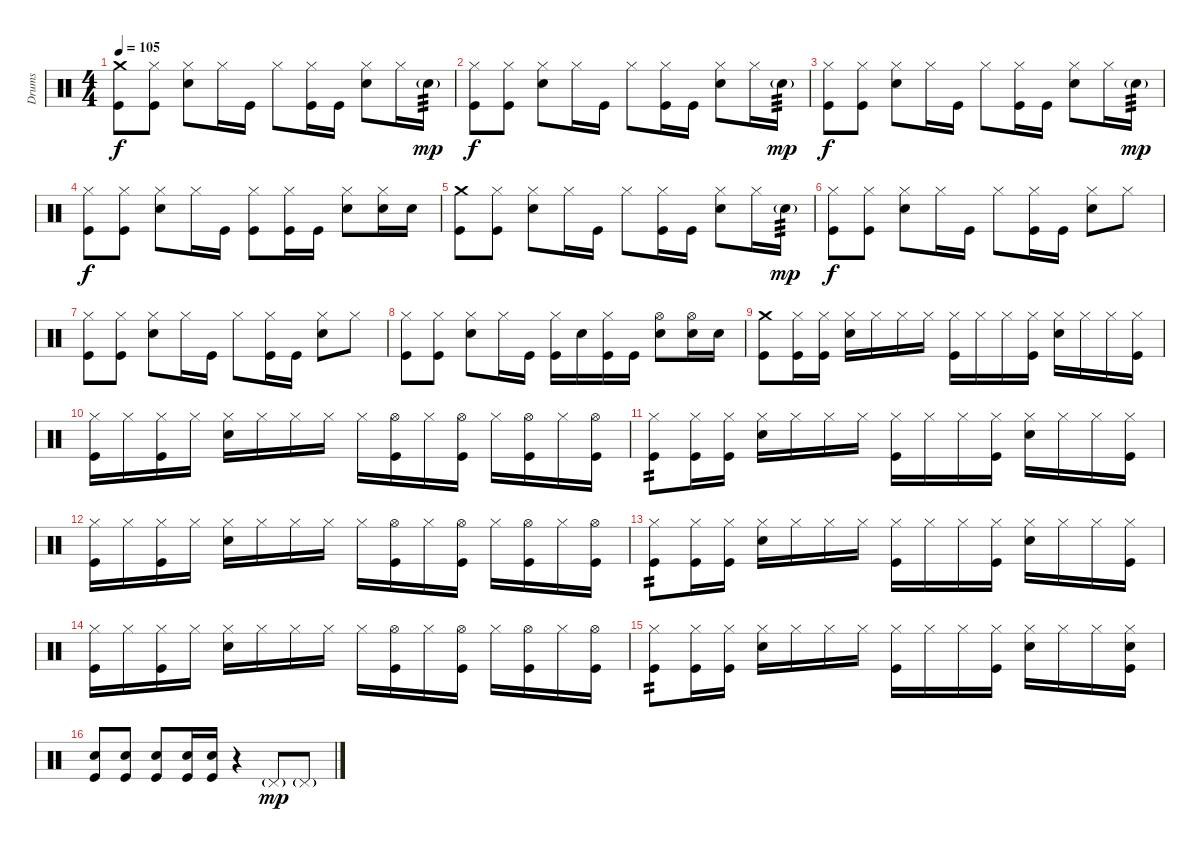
\track ("Drums" "Drums") {instrument percussion}
\staff {score}
\articulation defaults
\ts (4 4)
\tempo 105
\clef neutral
\ks c
("Crash medium (hit)" "Kick (hit)").8{dy f} ("Hi-Hat (closed)" "Kick (hit)").8 ("Hi-Hat (closed)" "Electric Snare (hit)").8 "Hi-Hat (closed)".16 "Kick (hit)".16 "Hi-Hat (closed)".8 ("Hi-Hat (closed)" "Kick (hit)").16 "Kick (hit)".16 ("Hi-Hat (closed)" "Electric Snare (hit)").8 "Hi-Hat (closed)".16 "Electric Snare (hit)"{g}.16{tp 3 dy mp} |
("Hi-Hat (closed)" "Kick (hit)").8{dy f} ("Hi-Hat (closed)" "Kick (hit)").8 ("Hi-Hat (closed)" "Electric Snare (hit)").8 "Hi-Hat (closed)".16 "Kick (hit)".16 "Hi-Hat (closed)".8 ("Hi-Hat (closed)" "Kick (hit)").16 "Kick (hit)".16 ("Hi-Hat (closed)" "Electric Snare (hit)").8 "Hi-Hat (closed)".16 "Electric Snare (hit)"{g}.16{tp 3 dy mp} |
("Hi-Hat (closed)" "Kick (hit)").8{dy f} ("Hi-Hat (closed)" "Kick (hit)").8 ("Hi-Hat (closed)" "Electric Snare (hit)").8 "Hi-Hat (closed)".16 "Kick (hit)".16 "Hi-Hat (closed)".8 ("Hi-Hat (closed)" "Kick (hit)").16 "Kick (hit)".16 ("Hi-Hat (closed)" "Electric Snare (hit)").8 "Hi-Hat (closed)".16 "Electric Snare (hit)"{g}.16{tp 3 dy mp} |
("Hi-Hat (closed)" "Kick (hit)").8{dy f} ("Hi-Hat (closed)" "Kick (hit)").8 ("Hi-Hat (closed)" "Electric Snare (hit)").8 "Hi-Hat (closed)".16 "Kick (hit)".16 ("Hi-Hat (closed)" "Kick (hit)").8 ("Hi-Hat (closed)" "Kick (hit)").16 "Kick (hit)".16 ("Hi-Hat (closed)" "Electric Snare (hit)").8 ("Hi-Hat (closed)" "Electric Snare (hit)").16 "Electric Snare (hit)".16 |
("Crash medium (hit)" "Kick (hit)").8 ("Hi-Hat (closed)" "Kick (hit)").8 ("Hi-Hat (closed)" "Electric Snare (hit)").8 "Hi-Hat (closed)".16 "Kick (hit)".16 "Hi-Hat (closed)".8 ("Hi-Hat (closed)" "Kick (hit)").16 "Kick (hit)".16 ("Hi-Hat (closed)" "Electric Snare (hit)").8 "Hi-Hat (closed)".16 "Electric Snare (hit)"{g}.16{tp 3 dy mp} |
("Hi-Hat (closed)" "Kick (hit)").8{dy f} ("Hi-Hat (closed)" "Kick (hit)").8 ("Hi-Hat (closed)" "Electric Snare (hit)").8 "Hi-Hat (closed)".16 "Kick (hit)".16 "Hi-Hat (closed)".8 ("Hi-Hat (closed)" "Kick (hit)").16 "Kick (hit)".16 ("Hi-Hat (closed)" "Electric Snare (hit)").8 "Hi-Hat (closed)".8 |
("Hi-Hat (closed)" "Kick (hit)").8 ("Hi-Hat (closed)" "Kick (hit)").8 ("Hi-Hat (closed)" "Electric Snare (hit)").8 "Hi-Hat (closed)".16 "Kick (hit)".16 "Hi-Hat (closed)".8 ("Hi-Hat (closed)" "Kick (hit)").16 "Kick (hit)".16 ("Hi-Hat (closed)" "Electric Snare (hit)").8 "Hi-Hat (closed)".8 |
("Hi-Hat (closed)" "Kick (hit)").8 ("Hi-Hat (closed)" "Kick (hit)").8 ("Hi-Hat (closed)" "Electric Snare (hit)").8 "Hi-Hat (closed)".16 "Kick (hit)".16 ("Hi-Hat (closed)" "Kick (hit)").16 "Electric Snare (hit)".16 ("Hi-Hat (closed)" "Kick (hit)").16 "Kick (hit)".16 ("Hi-Hat (open)" "Electric Snare (hit)").8 ("Hi-Hat (open)" "Electric Snare (hit)").16 "Electric Snare (hit)".16 |
("Crash medium (hit)" "Kick (hit)").8 ("Hi-Hat (closed)" "Kick (hit)").16 ("Hi-Hat (closed)" "Kick (hit)").16 ("Hi-Hat (closed)" "Electric Snare (hit)").16 "Hi-Hat (closed)".16 "Hi-Hat (closed)".16 "Hi-Hat (closed)".16 ("Hi-Hat (closed)" "Kick (hit)").16 "Hi-Hat (closed)".16 "Hi-Hat (closed)".16 ("Hi-Hat (closed)" "Kick (hit)").16 ("Hi-Hat (closed)" "Electric Snare (hit)").16 "Hi-Hat (closed)".16 "Hi-Hat (closed)".16 ("Hi-Hat (closed)" "Kick (hit)").16 |
("Hi-Hat (closed)" "Kick (hit)").16 "Hi-Hat (closed)".16 ("Hi-Hat (closed)" "Kick (hit)").16 "Hi-Hat (closed)".16 ("Hi-Hat (closed)" "Electric Snare (hit)").16 "Hi-Hat (closed)".16 "Hi-Hat (closed)".16 "Hi-Hat (closed)".16 "Hi-Hat (closed)".16 ("Hi-Hat (open)" "Kick (hit)").16 "Hi-Hat (closed)".16 ("Hi-Hat (open)" "Kick (hit)").16 "Hi-Hat (closed)".16 ("Hi-Hat (open)" "Kick (hit)").16 "Hi-Hat (closed)".16 ("Hi-Hat (open)" "Kick (hit)").16 |
("Hi-Hat (closed)" "Kick (hit)").8{tp 2} ("Hi-Hat (closed)" "Kick (hit)").16 ("Hi-Hat (closed)" "Kick (hit)").16 ("Hi-Hat (closed)" "Electric Snare (hit)").16 "Hi-Hat (closed)".16 "Hi-Hat (closed)".16 "Hi-Hat (closed)".16 ("Hi-Hat (closed)" "Kick (hit)").16 "Hi-Hat (closed)".16 "Hi-Hat (closed)".16 ("Hi-Hat (closed)" "Kick (hit)").16 ("Hi-Hat (closed)" "Electric Snare (hit)").16 "Hi-Hat (closed)".16 "Hi-Hat (closed)".16 ("Hi-Hat (closed)" "Kick (hit)").16 |
("Hi-Hat (closed)" "Kick (hit)").16 "Hi-Hat (closed)".16 ("Hi-Hat (closed)" "Kick (hit)").16 "Hi-Hat (closed)".16 ("Hi-Hat (closed)" "Electric Snare (hit)").16 "Hi-Hat (closed)".16 "Hi-Hat (closed)".16 "Hi-Hat (closed)".16 "Hi-Hat (closed)".16 ("Hi-Hat (open)" "Kick (hit)").16 "Hi-Hat (closed)".16 ("Hi-Hat (open)" "Kick (hit)").16 "Hi-Hat (closed)".16 ("Hi-Hat (open)" "Kick (hit)").16 "Hi-Hat (closed)".16 ("Hi-Hat (open)" "Kick (hit)").16 |
("Hi-Hat (closed)" "Kick (hit)").8{tp 2} ("Hi-Hat (closed)" "Kick (hit)").16 ("Hi-Hat (closed)" "Kick (hit)").16 ("Hi-Hat (closed)" "Electric Snare (hit)").16 "Hi-Hat (closed)".16 "Hi-Hat (closed)".16 "Hi-Hat (closed)".16 ("Hi-Hat (closed)" "Kick (hit)").16 "Hi-Hat (closed)".16 "Hi-Hat (closed)".16 ("Hi-Hat (closed)" "Kick (hit)").16 ("Hi-Hat (closed)" "Electric Snare (hit)").16 "Hi-Hat (closed)".16 "Hi-Hat (closed)".16 ("Hi-Hat (closed)" "Kick (hit)").16 |
("Hi-Hat (closed)" "Kick (hit)").16 "Hi-Hat (closed)".16 ("Hi-Hat (closed)" "Kick (hit)").16 "Hi-Hat (closed)".16 ("Hi-Hat (closed)" "Electric Snare (hit)").16 "Hi-Hat (closed)".16 "Hi-Hat (closed)".16 "Hi-Hat (closed)".16 "Hi-Hat (closed)".16 ("Hi-Hat (open)" "Kick (hit)").16 "Hi-Hat (closed)".16 ("Hi-Hat (open)" "Kick (hit)").16 "Hi-Hat (closed)".16 ("Hi-Hat (open)" "Kick (hit)").16 "Hi-Hat (closed)".16 ("Hi-Hat (open)" "Kick (hit)").16 |
("Hi-Hat (closed)" "Kick (hit)").8{tp 2} ("Hi-Hat (closed)" "Kick (hit)").16 ("Hi-Hat (closed)" "Kick (hit)").16 ("Hi-Hat (closed)" "Electric Snare (hit)").16 "Hi-Hat (closed)".16 "Hi-Hat (closed)".16 "Hi-Hat (closed)".16 ("Hi-Hat (closed)" "Kick (hit)").16 "Hi-Hat (closed)".16 "Hi-Hat (closed)".16 ("Hi-Hat (closed)" "Kick (hit)").16 ("Hi-Hat (closed)" "Electric Snare (hit)").16 "Hi-Hat (closed)".16 "Hi-Hat (closed)".16 ("Hi-Hat (closed)" "Electric Snare (hit)" "Kick (hit)").16 |
("Electric Snare (hit)" "Kick (hit)").8 ("Electric Snare (hit)" "Kick (hit)").8 ("Electric Snare (hit)" "Kick (hit)").8 ("Electric Snare (hit)" "Kick (hit)").16 ("Electric Snare (hit)" "Kick (hit)").16 r.4 "Pedal Hi-Hat (hit)"{g}.8{dy mp} "Pedal Hi-Hat (hit)"{g}.8
